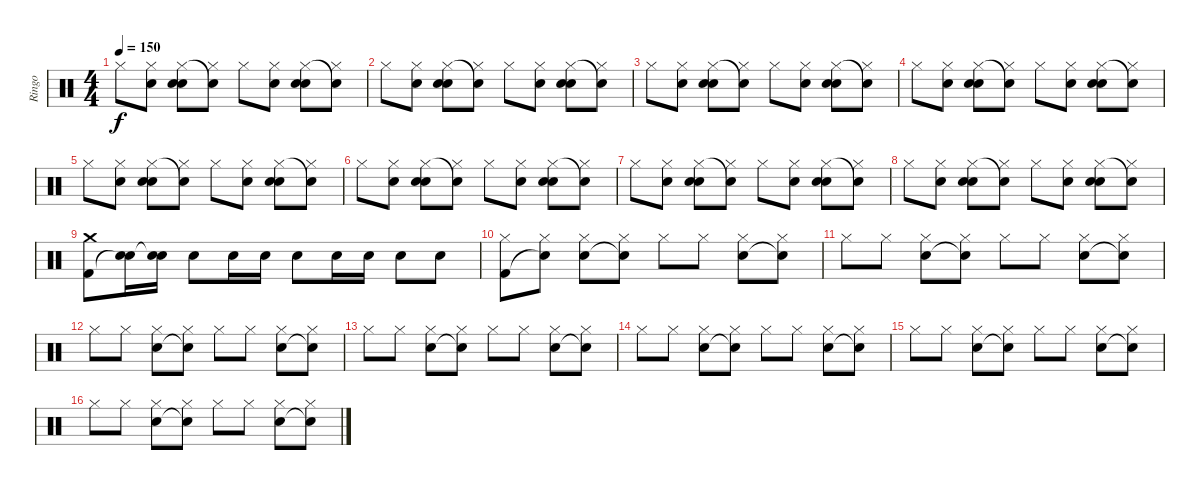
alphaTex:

\track ("Ringo" "Ringo") {instrument percussion}
\staff {score}
\articulation defaults
\ts (4 4)
\tempo 150
\clef neutral
\ks c "Hi-Hat (closed)".8{dy f}
("Hand Clap (hit)" "Hi-Hat (closed)").8 ("Hand Clap (hit)" "Hi-Hat (closed)" "Snare (hit) 2").8 ("Hi-Hat (closed)" "Snare (hit)"{t}).8 "Hi-Hat (closed)".8 ("Hand Clap (hit)" "Hi-Hat (closed)").8 ("Hand Clap (hit)" "Hi-Hat (closed)" "Snare (hit) 2").8 ("Hi-Hat (closed)" "Snare (hit)"{t}).8 |
"Hi-Hat (closed)".8 ("Hand Clap (hit)" "Hi-Hat (closed)").8 ("Hand Clap (hit)" "Hi-Hat (closed)" "Snare (hit) 2").8 ("Hi-Hat (closed)" "Snare (hit)"{t}).8 "Hi-Hat (closed)".8 ("Hand Clap (hit)" "Hi-Hat (closed)").8 ("Hand Clap (hit)" "Hi-Hat (closed)" "Snare (hit) 2").8 ("Hi-Hat (closed)" "Snare (hit)"{t}).8 |
"Hi-Hat (closed)".8 ("Hand Clap (hit)" "Hi-Hat (closed)").8 ("Hand Clap (hit)" "Hi-Hat (closed)" "Snare (hit) 2").8 ("Hi-Hat (closed)" "Snare (hit)"{t}).8 "Hi-Hat (closed)".8 ("Hand Clap (hit)" "Hi-Hat (closed)").8 ("Hand Clap (hit)" "Hi-Hat (closed)" "Snare (hit) 2").8 ("Hi-Hat (closed)" "Snare (hit)"{t}).8 |
"Hi-Hat (closed)".8 ("Hand Clap (hit)" "Hi-Hat (closed)").8 ("Hand Clap (hit)" "Hi-Hat (closed)" "Snare (hit) 2").8 ("Hi-Hat (closed)" "Snare (hit)"{t}).8 "Hi-Hat (closed)".8 ("Hand Clap (hit)" "Hi-Hat (closed)").8 ("Hand Clap (hit)" "Hi-Hat (closed)" "Snare (hit) 2").8 ("Hi-Hat (closed)" "Snare (hit)"{t}).8 |
"Hi-Hat (closed)".8 ("Hand Clap (hit)" "Hi-Hat (closed)").8 ("Hand Clap (hit)" "Hi-Hat (closed)" "Snare (hit) 2").8 ("Hi-Hat (closed)" "Snare (hit)"{t}).8 "Hi-Hat (closed)".8 ("Hand Clap (hit)" "Hi-Hat (closed)").8 ("Hand Clap (hit)" "Hi-Hat (closed)" "Snare (hit) 2").8 ("Hi-Hat (closed)" "Snare (hit)"{t}).8 |
"Hi-Hat (closed)".8 ("Hand Clap (hit)" "Hi-Hat (closed)").8 ("Hand Clap (hit)" "Hi-Hat (closed)" "Snare (hit) 2").8 ("Hi-Hat (closed)" "Snare (hit)"{t}).8 "Hi-Hat (closed)".8 ("Hand Clap (hit)" "Hi-Hat (closed)").8 ("Hand Clap (hit)" "Hi-Hat (closed)" "Snare (hit) 2").8 ("Hi-Hat (closed)" "Snare (hit)"{t}).8 |
"Hi-Hat (closed)".8 ("Hand Clap (hit)" "Hi-Hat (closed)").8 ("Hand Clap (hit)" "Hi-Hat (closed)" "Snare (hit) 2").8 ("Hi-Hat (closed)" "Snare (hit)"{t}).8 "Hi-Hat (closed)".8 ("Hand Clap (hit)" "Hi-Hat (closed)").8 ("Hand Clap (hit)" "Hi-Hat (closed)" "Snare (hit) 2").8 ("Hi-Hat (closed)" "Snare (hit)"{t}).8 |
"Hi-Hat (closed)".8 ("Hand Clap (hit)" "Hi-Hat (closed)").8 ("Hand Clap (hit)" "Hi-Hat (closed)" "Snare (hit) 2").8 ("Hi-Hat (closed)" "Snare (hit)"{t}).8 "Hi-Hat (closed)".8 ("Hand Clap (hit)" "Hi-Hat (closed)").8 ("Hand Clap (hit)" "Hi-Hat (closed)" "Snare (hit) 2").8 ("Hi-Hat (closed)" "Snare (hit)"{t}).8 |
("Crash medium (hit)" "Kick (hit) 2").8 ("Snare (hit) 2" "Snare (hit)"{t}).16 ("Snare (hit) 2" "Snare (hit)"{t}).16 "Snare (hit) 2".8 "Snare (hit) 2".16 "Snare (hit) 2".16 "Snare (hit) 2".8 "Snare (hit) 2".16 "Snare (hit) 2".16 "Snare (hit) 2".8 "Snare (hit) 2".8 |
("Hi-Hat (closed)" "Kick (hit) 2").8 ("Hi-Hat (closed)" "Snare (hit)"{t}).8 ("Hi-Hat (closed)" "Snare (hit) 2").8 ("Hi-Hat (closed)" "Snare (hit)"{t}).8 "Hi-Hat (closed)".8 "Hi-Hat (closed)".8 ("Hi-Hat (closed)" "Snare (hit) 2").8 ("Hi-Hat (closed)" "Snare (hit)"{t}).8 |
"Hi-Hat (closed)".8 "Hi-Hat (closed)".8 ("Hi-Hat (closed)" "Snare (hit) 2").8 ("Hi-Hat (closed)" "Snare (hit)"{t}).8 "Hi-Hat (closed)".8 "Hi-Hat (closed)".8 ("Hi-Hat (closed)" "Snare (hit) 2").8 ("Hi-Hat (closed)" "Snare (hit)"{t}).8 |
"Hi-Hat (closed)".8 "Hi-Hat (closed)".8 ("Hi-Hat (closed)" "Snare (hit) 2").8 ("Hi-Hat (closed)" "Snare (hit)"{t}).8 "Hi-Hat (closed)".8 "Hi-Hat (closed)".8 ("Hi-Hat (closed)" "Snare (hit) 2").8 ("Hi-Hat (closed)" "Snare (hit)"{t}).8 |
"Hi-Hat (closed)".8 "Hi-Hat (closed)".8 ("Hi-Hat (closed)" "Snare (hit) 2").8 ("Hi-Hat (closed)" "Snare (hit)"{t}).8 "Hi-Hat (closed)".8 "Hi-Hat (closed)".8 ("Hi-Hat (closed)" "Snare (hit) 2").8 ("Hi-Hat (closed)" "Snare (hit)"{t}).8 |
"Hi-Hat (closed)".8 "Hi-Hat (closed)".8 ("Hi-Hat (closed)" "Snare (hit) 2").8 ("Hi-Hat (closed)" "Snare (hit)"{t}).8 "Hi-Hat (closed)".8 "Hi-Hat (closed)".8 ("Hi-Hat (closed)" "Snare (hit) 2").8 ("Hi-Hat (closed)" "Snare (hit)"{t}).8 |
"Hi-Hat (closed)".8 "Hi-Hat (closed)".8 ("Hi-Hat (closed)" "Snare (hit) 2").8 ("Hi-Hat (closed)" "Snare (hit)"{t}).8 "Hi-Hat (closed)".8 "Hi-Hat (closed)".8 ("Hi-Hat (closed)" "Snare (hit) 2").8 ("Hi-Hat (closed)" "Snare (hit)"{t}).8 |
"Hi-Hat (closed)".8 "Hi-Hat (closed)".8 ("Hi-Hat (closed)" "Snare (hit) 2").8 ("Hi-Hat (closed)" "Snare (hit)"{t}).8 "Hi-Hat (closed)".8 "Hi-Hat (closed)".8 ("Hi-Hat (closed)" "Snare (hit) 2").8 ("Hi-Hat (closed)" "Snare (hit)"{t}).8
